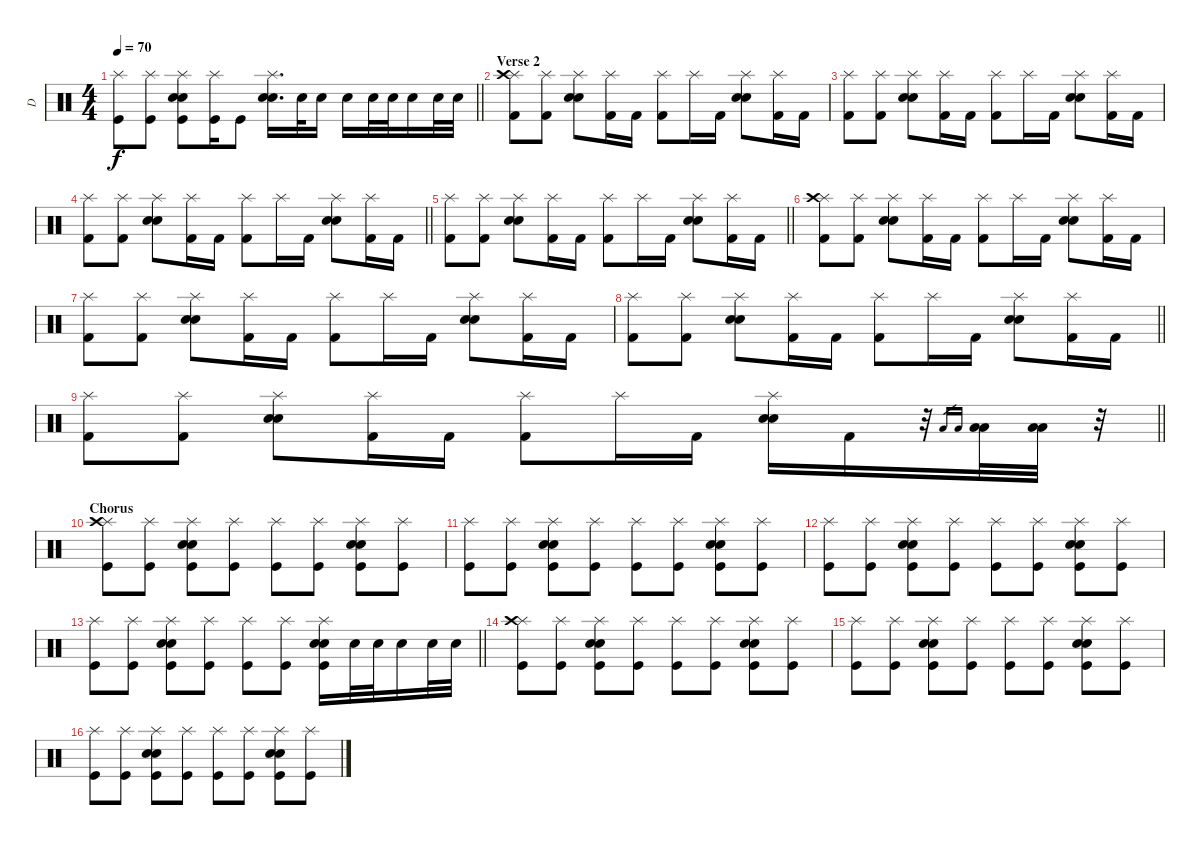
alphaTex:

\track ("D" "D") {instrument percussion}
\staff {score}
\articulation defaults
\ts (4 4)
\tempo 70
\clef neutral
\barLineRight lightlight
\ks c
("Splash (hit)" "Kick (hit)").8{dy f} ("Splash (hit)" "Kick (hit)").8 ("Splash (hit)" "Electric Snare (hit)" "Electric Snare (hit)" "Kick (hit)").8 ("Splash (hit)" "Kick (hit)").16 "Kick (hit)".8 ("Splash (hit)" "Electric Snare (hit)" "Electric Snare (hit)").16{d} "Electric Snare (hit)".32 "Electric Snare (hit)".16 "Electric Snare (hit)".16 "Electric Snare (hit)".32 "Electric Snare (hit)".32 "Electric Snare (hit)".16 "Electric Snare (hit)".32 "Electric Snare (hit)".32 |
\section ("" "Verse 2")
("Splash (hit)" "Crash high (hit)" "Kick (hit) 2").8 ("Splash (hit)" "Kick (hit) 2").8 ("Splash (hit)" "Electric Snare (hit)" "Electric Snare (hit)").8 ("Splash (hit)" "Kick (hit) 2").16 "Kick (hit) 2".16 ("Splash (hit)" "Kick (hit) 2").8 "Splash (hit)".16 "Kick (hit) 2".16 ("Splash (hit)" "Electric Snare (hit)" "Electric Snare (hit)").8 ("Splash (hit)" "Kick (hit) 2").16 "Kick (hit) 2".16 |
("Splash (hit)" "Kick (hit) 2").8 ("Splash (hit)" "Kick (hit) 2").8 ("Splash (hit)" "Electric Snare (hit)" "Electric Snare (hit)").8 ("Splash (hit)" "Kick (hit) 2").16 "Kick (hit) 2".16 ("Splash (hit)" "Kick (hit) 2").8 "Splash (hit)".16 "Kick (hit) 2".16 ("Splash (hit)" "Electric Snare (hit)" "Electric Snare (hit)").8 ("Splash (hit)" "Kick (hit) 2").16 "Kick (hit) 2".16 |
\barLineRight lightlight
("Splash (hit)" "Kick (hit) 2").8 ("Splash (hit)" "Kick (hit) 2").8 ("Splash (hit)" "Electric Snare (hit)" "Electric Snare (hit)").8 ("Splash (hit)" "Kick (hit) 2").16 "Kick (hit) 2".16 ("Splash (hit)" "Kick (hit) 2").8 "Splash (hit)".16 "Kick (hit) 2".16 ("Splash (hit)" "Electric Snare (hit)" "Electric Snare (hit)").8 ("Splash (hit)" "Kick (hit) 2").16 "Kick (hit) 2".16 |
\barLineRight lightlight
("Splash (hit)" "Kick (hit) 2").8 ("Splash (hit)" "Kick (hit) 2").8 ("Splash (hit)" "Electric Snare (hit)" "Electric Snare (hit)").8 ("Splash (hit)" "Kick (hit) 2").16 "Kick (hit) 2".16 ("Splash (hit)" "Kick (hit) 2").8 "Splash (hit)".16 "Kick (hit) 2".16 ("Splash (hit)" "Electric Snare (hit)" "Electric Snare (hit)").8 ("Splash (hit)" "Kick (hit) 2").16 "Kick (hit) 2".16 |
("Splash (hit)" "Crash high (hit)" "Kick (hit) 2").8 ("Splash (hit)" "Kick (hit) 2").8 ("Splash (hit)" "Electric Snare (hit)" "Electric Snare (hit)").8 ("Splash (hit)" "Kick (hit) 2").16 "Kick (hit) 2".16 ("Splash (hit)" "Kick (hit) 2").8 "Splash (hit)".16 "Kick (hit) 2".16 ("Splash (hit)" "Electric Snare (hit)" "Electric Snare (hit)").8 ("Splash (hit)" "Kick (hit) 2").16 "Kick (hit) 2".16 |
("Splash (hit)" "Kick (hit) 2").8 ("Splash (hit)" "Kick (hit) 2").8 ("Splash (hit)" "Electric Snare (hit)" "Electric Snare (hit)").8 ("Splash (hit)" "Kick (hit) 2").16 "Kick (hit) 2".16 ("Splash (hit)" "Kick (hit) 2").8 "Splash (hit)".16 "Kick (hit) 2".16 ("Splash (hit)" "Electric Snare (hit)" "Electric Snare (hit)").8 ("Splash (hit)" "Kick (hit) 2").16 "Kick (hit) 2".16 |
\barLineRight lightlight
("Splash (hit)" "Kick (hit) 2").8 ("Splash (hit)" "Kick (hit) 2").8 ("Splash (hit)" "Electric Snare (hit)" "Electric Snare (hit)").8 ("Splash (hit)" "Kick (hit) 2").16 "Kick (hit) 2".16 ("Splash (hit)" "Kick (hit) 2").8 "Splash (hit)".16 "Kick (hit) 2".16 ("Splash (hit)" "Electric Snare (hit)" "Electric Snare (hit)").8 ("Splash (hit)" "Kick (hit) 2").16 "Kick (hit) 2".16 |
\barLineRight lightlight
("Splash (hit)" "Kick (hit) 2").8 ("Splash (hit)" "Kick (hit) 2").8 ("Splash (hit)" "Electric Snare (hit)" "Electric Snare (hit)").8 ("Splash (hit)" "Kick (hit) 2").16 "Kick (hit) 2".16 ("Splash (hit)" "Kick (hit) 2").8 "Splash (hit)".16 "Kick (hit) 2".16 ("Splash (hit)" "Electric Snare (hit)" "Electric Snare (hit)").16 "Kick (hit) 2".16 r.32 "Low Tom (hit)".16{gr} "Low Floor Tom (hit)".16{gr} ("Low Tom (hit)" "Low Floor Tom (hit)").32 ("Low Tom (hit)" "Low Floor Tom (hit)").32 r.32 |
\section ("" "Chorus")
("Splash (hit)" "Crash high (hit)" "Kick (hit)").8 ("Splash (hit)" "Kick (hit)").8 ("Splash (hit)" "Electric Snare (hit)" "Electric Snare (hit)" "Kick (hit)").8 ("Splash (hit)" "Kick (hit)").8 ("Splash (hit)" "Kick (hit)").8 ("Splash (hit)" "Kick (hit)").8 ("Splash (hit)" "Electric Snare (hit)" "Electric Snare (hit)" "Kick (hit)").8 ("Splash (hit)" "Kick (hit)").8 |
("Splash (hit)" "Kick (hit)").8 ("Splash (hit)" "Kick (hit)").8 ("Splash (hit)" "Electric Snare (hit)" "Electric Snare (hit)" "Kick (hit)").8 ("Splash (hit)" "Kick (hit)").8 ("Splash (hit)" "Kick (hit)").8 ("Splash (hit)" "Kick (hit)").8 ("Splash (hit)" "Electric Snare (hit)" "Electric Snare (hit)" "Kick (hit)").8 ("Splash (hit)" "Kick (hit)").8 |
("Splash (hit)" "Kick (hit)").8 ("Splash (hit)" "Kick (hit)").8 ("Splash (hit)" "Electric Snare (hit)" "Electric Snare (hit)" "Kick (hit)").8 ("Splash (hit)" "Kick (hit)").8 ("Splash (hit)" "Kick (hit)").8 ("Splash (hit)" "Kick (hit)").8 ("Splash (hit)" "Electric Snare (hit)" "Electric Snare (hit)" "Kick (hit)").8 ("Splash (hit)" "Kick (hit)").8 |
\barLineRight lightlight
("Splash (hit)" "Kick (hit)").8 ("Splash (hit)" "Kick (hit)").8 ("Splash (hit)" "Electric Snare (hit)" "Electric Snare (hit)" "Kick (hit)").8 ("Splash (hit)" "Kick (hit)").8 ("Splash (hit)" "Kick (hit)").8 ("Splash (hit)" "Kick (hit)").8 ("Splash (hit)" "Electric Snare (hit)" "Electric Snare (hit)" "Kick (hit)").16 "Electric Snare (hit)".32 "Electric Snare (hit)".32 "Electric Snare (hit)".16 "Electric Snare (hit)".32 "Electric Snare (hit)".32 |
("Splash (hit)" "Crash high (hit)" "Kick (hit)").8 ("Splash (hit)" "Kick (hit)").8 ("Splash (hit)" "Electric Snare (hit)" "Electric Snare (hit)" "Kick (hit)").8 ("Splash (hit)" "Kick (hit)").8 ("Splash (hit)" "Kick (hit)").8 ("Splash (hit)" "Kick (hit)").8 ("Splash (hit)" "Electric Snare (hit)" "Electric Snare (hit)" "Kick (hit)").8 ("Splash (hit)" "Kick (hit)").8 |
("Splash (hit)" "Kick (hit)").8 ("Splash (hit)" "Kick (hit)").8 ("Splash (hit)" "Electric Snare (hit)" "Electric Snare (hit)" "Kick (hit)").8 ("Splash (hit)" "Kick (hit)").8 ("Splash (hit)" "Kick (hit)").8 ("Splash (hit)" "Kick (hit)").8 ("Splash (hit)" "Electric Snare (hit)" "Electric Snare (hit)" "Kick (hit)").8 ("Splash (hit)" "Kick (hit)").8 |
("Splash (hit)" "Kick (hit)").8 ("Splash (hit)" "Kick (hit)").8 ("Splash (hit)" "Electric Snare (hit)" "Electric Snare (hit)" "Kick (hit)").8 ("Splash (hit)" "Kick (hit)").8 ("Splash (hit)" "Kick (hit)").8 ("Splash (hit)" "Kick (hit)").8 ("Splash (hit)" "Electric Snare (hit)" "Electric Snare (hit)" "Kick (hit)").8 ("Splash (hit)" "Kick (hit)").8
